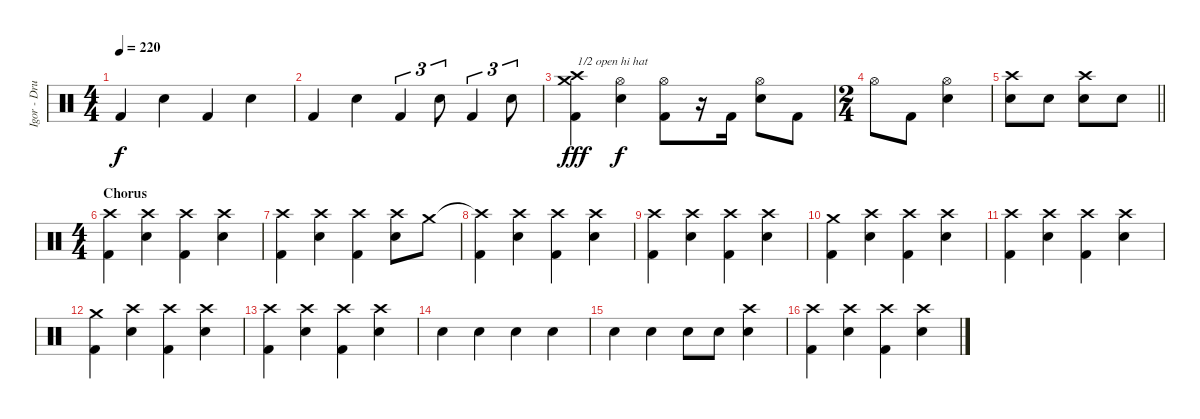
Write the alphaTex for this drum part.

\track ("Igor - Drums" "Igor - Dru") {instrument percussion}
\staff {score}
\articulation defaults
\ts (4 4)
\tempo 220
\clef neutral
\ks c "Kick (hit) 2".4{dy f} "Electric Snare (hit)".4 "Kick (hit) 2".4 "Electric Snare (hit)".4
|
"Kick (hit) 2".4 "Electric Snare (hit)".4 "Kick (hit) 2".4{tu (3 2)} "Electric Snare (hit)".8{tu (3 2)} "Kick (hit) 2".4{tu (3 2)} "Electric Snare (hit)".8{tu (3 2)} |
("Crash high (hit)" "Crash medium (hit)" "Kick (hit) 2").4{txt "1/2 open hi hat" dy fff} ("Hi-Hat (open)" "Snare (hit) 2").4{dy f} ("Hi-Hat (open)" "Kick (hit) 2").8 r.16 "Kick (hit) 2".16 ("Hi-Hat (open)" "Snare (hit) 2").8 "Kick (hit) 2".8 |
\ts (2 4)
"Hi-Hat (open)".8 "Kick (hit) 2".8 ("Hi-Hat (open)" "Snare (hit) 2").4 |
\barLineRight lightlight
("Crash high (hit)" "Electric Snare (hit)").8 "Electric Snare (hit)".8 ("Crash high (hit)" "Electric Snare (hit)").8 "Electric Snare (hit)".8 |
\ts (4 4)
\section ("" "Chorus")
("Crash high (hit)" "Kick (hit) 2").4 ("Crash high (hit)" "Snare (hit) 2").4 ("Crash high (hit)" "Kick (hit) 2").4 ("Crash high (hit)" "Snare (hit) 2").4 |
("Crash high (hit)" "Kick (hit) 2").4 ("Crash high (hit)" "Snare (hit) 2").4 ("Crash high (hit)" "Kick (hit) 2").4 ("Crash high (hit)" "Snare (hit) 2").8 "Crash medium (hit)".8 |
("Crash high (hit)"{t} "Kick (hit) 2").4 ("Crash high (hit)" "Snare (hit) 2").4 ("Crash high (hit)" "Kick (hit) 2").4 ("Crash high (hit)" "Snare (hit) 2").4 |
("Crash high (hit)" "Kick (hit) 2").4 ("Crash high (hit)" "Snare (hit) 2").4 ("Crash high (hit)" "Kick (hit) 2").4 ("Crash high (hit)" "Snare (hit) 2").4 |
("Crash medium (hit)" "Kick (hit) 2").4 ("Crash high (hit)" "Snare (hit) 2").4 ("Crash high (hit)" "Kick (hit) 2").4 ("Crash high (hit)" "Snare (hit) 2").4 |
("Crash high (hit)" "Kick (hit) 2").4 ("Crash high (hit)" "Snare (hit) 2").4 ("Crash high (hit)" "Kick (hit) 2").4 ("Crash high (hit)" "Snare (hit) 2").4 |
("Crash medium (hit)" "Kick (hit) 2").4 ("Crash high (hit)" "Snare (hit) 2").4 ("Crash high (hit)" "Kick (hit) 2").4 ("Crash high (hit)" "Snare (hit) 2").4 |
("Crash high (hit)" "Kick (hit) 2").4 ("Crash high (hit)" "Snare (hit) 2").4 ("Crash high (hit)" "Kick (hit) 2").4 ("Crash high (hit)" "Snare (hit) 2").4 |
"Electric Snare (hit)".4 "Electric Snare (hit)".4 "Electric Snare (hit)".4 "Electric Snare (hit)".4 |
"Electric Snare (hit)".4 "Electric Snare (hit)".4 "Electric Snare (hit)".8 "Electric Snare (hit)".8 ("Crash high (hit)" "Electric Snare (hit)").4 |
("Crash high (hit)" "Kick (hit) 2").4 ("Crash high (hit)" "Snare (hit) 2").4 ("Crash high (hit)" "Kick (hit) 2").4 ("Crash high (hit)" "Snare (hit) 2").4
